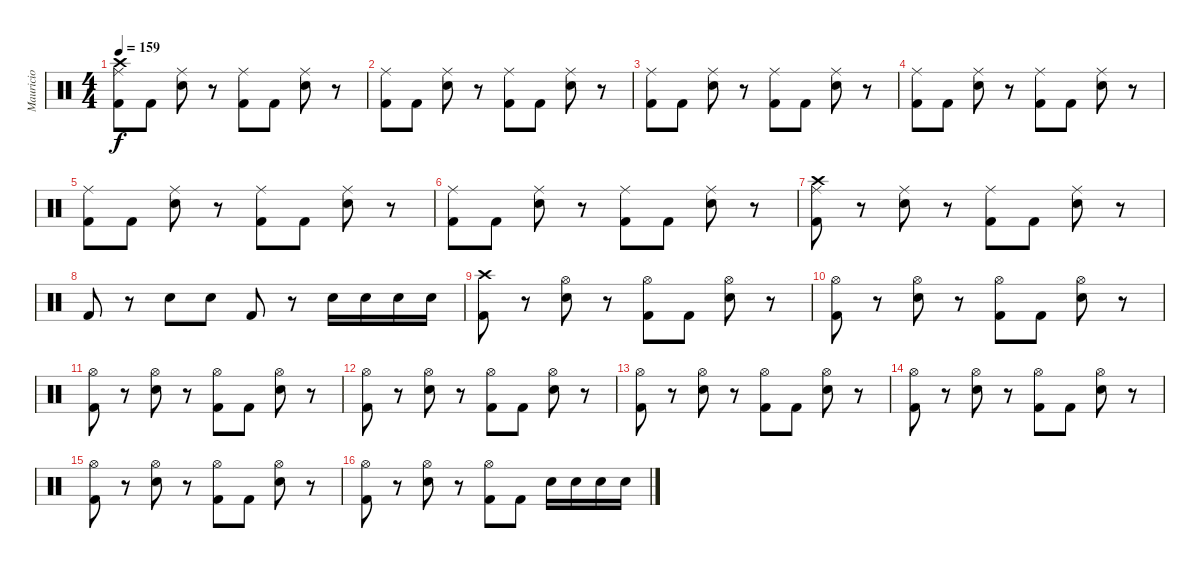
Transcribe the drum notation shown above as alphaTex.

\track ("Mauricio" "Mauricio") {instrument percussion}
\staff {score}
\articulation defaults
\ts (4 4)
\tempo 159
\clef neutral
\ks c
("Ride (middle)" "Crash high (hit)" "Kick (hit) 2").8{dy f} "Kick (hit) 2".8 ("Ride (middle)" "Snare (hit) 2").8 r.8 ("Ride (middle)" "Kick (hit) 2").8 "Kick (hit) 2".8 ("Ride (middle)" "Snare (hit) 2").8 r.8 |
("Ride (middle)" "Kick (hit) 2").8 "Kick (hit) 2".8 ("Ride (middle)" "Snare (hit) 2").8 r.8 ("Ride (middle)" "Kick (hit) 2").8 "Kick (hit) 2".8 ("Ride (middle)" "Snare (hit) 2").8 r.8 |
("Ride (middle)" "Kick (hit) 2").8 "Kick (hit) 2".8 ("Ride (middle)" "Snare (hit) 2").8 r.8 ("Ride (middle)" "Kick (hit) 2").8 "Kick (hit) 2".8 ("Ride (middle)" "Snare (hit) 2").8 r.8 |
("Ride (middle)" "Kick (hit) 2").8 "Kick (hit) 2".8 ("Ride (middle)" "Snare (hit) 2").8 r.8 ("Ride (middle)" "Kick (hit) 2").8 "Kick (hit) 2".8 ("Ride (middle)" "Snare (hit) 2").8 r.8 |
("Ride (middle)" "Kick (hit) 2").8 "Kick (hit) 2".8 ("Ride (middle)" "Snare (hit) 2").8 r.8 ("Ride (middle)" "Kick (hit) 2").8 "Kick (hit) 2".8 ("Ride (middle)" "Snare (hit) 2").8 r.8 |
("Ride (middle)" "Kick (hit) 2").8 "Kick (hit) 2".8 ("Ride (middle)" "Snare (hit) 2").8 r.8 ("Ride (middle)" "Kick (hit) 2").8 "Kick (hit) 2".8 ("Ride (middle)" "Snare (hit) 2").8 r.8 |
("Ride (middle)" "Crash high (hit)" "Kick (hit) 2").8 r.8 ("Ride (middle)" "Snare (hit) 2").8 r.8 ("Ride (middle)" "Kick (hit) 2").8 "Kick (hit) 2".8 ("Ride (middle)" "Snare (hit) 2").8 r.8 |
"Kick (hit) 2".8 r.8 "Snare (hit) 2".8 "Snare (hit) 2".8 "Kick (hit) 2".8 r.8 "Snare (hit) 2".16 "Snare (hit) 2".16 "Snare (hit) 2".16 "Snare (hit) 2".16 |
("Crash high (hit)" "Kick (hit) 2").8 r.8 ("Hi-Hat (open)" "Snare (hit) 2").8 r.8 ("Hi-Hat (open)" "Kick (hit) 2").8 "Kick (hit) 2".8 ("Hi-Hat (open)" "Snare (hit) 2").8 r.8 |
("Hi-Hat (open)" "Kick (hit) 2").8 r.8 ("Hi-Hat (open)" "Snare (hit) 2").8 r.8 ("Hi-Hat (open)" "Kick (hit) 2").8 "Kick (hit) 2".8 ("Hi-Hat (open)" "Snare (hit) 2").8 r.8 |
("Hi-Hat (open)" "Kick (hit) 2").8 r.8 ("Hi-Hat (open)" "Snare (hit) 2").8 r.8 ("Hi-Hat (open)" "Kick (hit) 2").8 "Kick (hit) 2".8 ("Hi-Hat (open)" "Snare (hit) 2").8 r.8 |
("Hi-Hat (open)" "Kick (hit) 2").8 r.8 ("Hi-Hat (open)" "Snare (hit) 2").8 r.8 ("Hi-Hat (open)" "Kick (hit) 2").8 "Kick (hit) 2".8 ("Hi-Hat (open)" "Snare (hit) 2").8 r.8 |
("Hi-Hat (open)" "Kick (hit) 2").8 r.8 ("Hi-Hat (open)" "Snare (hit) 2").8 r.8 ("Hi-Hat (open)" "Kick (hit) 2").8 "Kick (hit) 2".8 ("Hi-Hat (open)" "Snare (hit) 2").8 r.8 |
("Hi-Hat (open)" "Kick (hit) 2").8 r.8 ("Hi-Hat (open)" "Snare (hit) 2").8 r.8 ("Hi-Hat (open)" "Kick (hit) 2").8 "Kick (hit) 2".8 ("Hi-Hat (open)" "Snare (hit) 2").8 r.8 |
("Hi-Hat (open)" "Kick (hit) 2").8 r.8 ("Hi-Hat (open)" "Snare (hit) 2").8 r.8 ("Hi-Hat (open)" "Kick (hit) 2").8 "Kick (hit) 2".8 ("Hi-Hat (open)" "Snare (hit) 2").8 r.8 |
("Hi-Hat (open)" "Kick (hit) 2").8 r.8 ("Hi-Hat (open)" "Snare (hit) 2").8 r.8 ("Hi-Hat (open)" "Kick (hit) 2").8 "Kick (hit) 2".8 "Snare (hit) 2".16 "Snare (hit) 2".16 "Snare (hit) 2".16 "Snare (hit) 2".16
